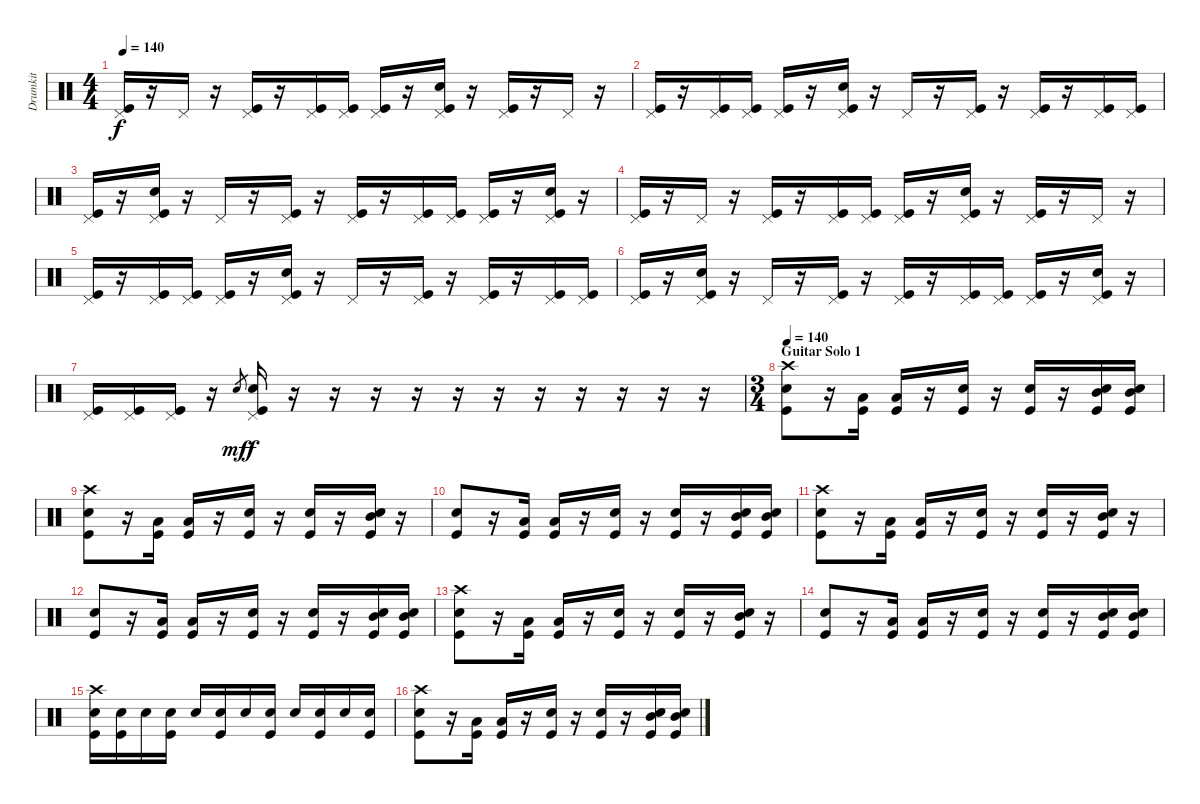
\track ("Drumkit" "Drumkit") {instrument percussion}
\staff {score}
\articulation defaults
\ts (4 4)
\tempo 140
\clef neutral
\ks c
("Pedal Hi-Hat (hit)" "Kick (hit)").16{dy f} r.16 "Pedal Hi-Hat (hit)".16 r.16 ("Pedal Hi-Hat (hit)" "Kick (hit)").16 r.16 ("Pedal Hi-Hat (hit)" "Kick (hit)").16 ("Pedal Hi-Hat (hit)" "Kick (hit)").16 ("Pedal Hi-Hat (hit)" "Kick (hit)").16 r.16 ("Snare (hit) 2" "Pedal Hi-Hat (hit)" "Kick (hit)").16 r.16 ("Pedal Hi-Hat (hit)" "Kick (hit)").16 r.16 "Pedal Hi-Hat (hit)".16 r.16 |
("Pedal Hi-Hat (hit)" "Kick (hit)").16 r.16 ("Pedal Hi-Hat (hit)" "Kick (hit)").16 ("Pedal Hi-Hat (hit)" "Kick (hit)").16 ("Pedal Hi-Hat (hit)" "Kick (hit)").16 r.16 ("Snare (hit) 2" "Pedal Hi-Hat (hit)" "Kick (hit)").16 r.16 "Pedal Hi-Hat (hit)".16 r.16 ("Pedal Hi-Hat (hit)" "Kick (hit)").16 r.16 ("Pedal Hi-Hat (hit)" "Kick (hit)").16 r.16 ("Pedal Hi-Hat (hit)" "Kick (hit)").16 ("Pedal Hi-Hat (hit)" "Kick (hit)").16 |
("Pedal Hi-Hat (hit)" "Kick (hit)").16 r.16 ("Snare (hit) 2" "Pedal Hi-Hat (hit)" "Kick (hit)").16 r.16 "Pedal Hi-Hat (hit)".16 r.16 ("Pedal Hi-Hat (hit)" "Kick (hit)").16 r.16 ("Pedal Hi-Hat (hit)" "Kick (hit)").16 r.16 ("Pedal Hi-Hat (hit)" "Kick (hit)").16 ("Pedal Hi-Hat (hit)" "Kick (hit)").16 ("Pedal Hi-Hat (hit)" "Kick (hit)").16 r.16 ("Snare (hit) 2" "Pedal Hi-Hat (hit)" "Kick (hit)").16 r.16 |
("Pedal Hi-Hat (hit)" "Kick (hit)").16 r.16 "Pedal Hi-Hat (hit)".16 r.16 ("Pedal Hi-Hat (hit)" "Kick (hit)").16 r.16 ("Pedal Hi-Hat (hit)" "Kick (hit)").16 ("Pedal Hi-Hat (hit)" "Kick (hit)").16 ("Pedal Hi-Hat (hit)" "Kick (hit)").16 r.16 ("Snare (hit) 2" "Pedal Hi-Hat (hit)" "Kick (hit)").16 r.16 ("Pedal Hi-Hat (hit)" "Kick (hit)").16 r.16 "Pedal Hi-Hat (hit)".16 r.16 |
("Pedal Hi-Hat (hit)" "Kick (hit)").16 r.16 ("Pedal Hi-Hat (hit)" "Kick (hit)").16 ("Pedal Hi-Hat (hit)" "Kick (hit)").16 ("Pedal Hi-Hat (hit)" "Kick (hit)").16 r.16 ("Snare (hit) 2" "Pedal Hi-Hat (hit)" "Kick (hit)").16 r.16 "Pedal Hi-Hat (hit)".16 r.16 ("Pedal Hi-Hat (hit)" "Kick (hit)").16 r.16 ("Pedal Hi-Hat (hit)" "Kick (hit)").16 r.16 ("Pedal Hi-Hat (hit)" "Kick (hit)").16 ("Pedal Hi-Hat (hit)" "Kick (hit)").16 |
("Pedal Hi-Hat (hit)" "Kick (hit)").16 r.16 ("Snare (hit) 2" "Pedal Hi-Hat (hit)" "Kick (hit)").16 r.16 "Pedal Hi-Hat (hit)".16 r.16 ("Pedal Hi-Hat (hit)" "Kick (hit)").16 r.16 ("Pedal Hi-Hat (hit)" "Kick (hit)").16 r.16 ("Pedal Hi-Hat (hit)" "Kick (hit)").16 ("Pedal Hi-Hat (hit)" "Kick (hit)").16 ("Pedal Hi-Hat (hit)" "Kick (hit)").16 r.16 ("Snare (hit) 2" "Pedal Hi-Hat (hit)" "Kick (hit)").16 r.16 |
("Pedal Hi-Hat (hit)" "Kick (hit)").16 ("Pedal Hi-Hat (hit)" "Kick (hit)").16 ("Pedal Hi-Hat (hit)" "Kick (hit)").16 r.16 "Snare (hit)".8{gr dy mf} ("Snare (hit) 2" "Pedal Hi-Hat (hit)" "Kick (hit)").16{dy f} r.16 r.16 r.16 r.16 r.16 r.16 r.16 r.16 r.16 r.16 r.16 |
\ts (3 4)
\section ("" "Guitar Solo 1")
\tempo 140
("Crash high (hit)" "Snare (hit) 2" "Kick (hit)").8 r.16 ("Low Tom (hit)" "Kick (hit)").16 ("Low Tom (hit)" "Kick (hit)").16 r.16 ("Snare (hit) 2" "Kick (hit)").16 r.16 ("Snare (hit) 2" "Kick (hit)").16 r.16 ("Snare (hit) 2" "Mid Tom (hit)" "Kick (hit)").16 ("Snare (hit) 2" "Mid Tom (hit)" "Kick (hit)").16 |
("Crash high (hit)" "Snare (hit) 2" "Kick (hit)").8 r.16 ("Low Tom (hit)" "Kick (hit)").16 ("Low Tom (hit)" "Kick (hit)").16 r.16 ("Snare (hit) 2" "Kick (hit)").16 r.16 ("Snare (hit) 2" "Kick (hit)").16 r.16 ("Snare (hit) 2" "Mid Tom (hit)" "Kick (hit)").16 r.16 |
("Snare (hit) 2" "Kick (hit)").8 r.16 ("Low Tom (hit)" "Kick (hit)").16 ("Low Tom (hit)" "Kick (hit)").16 r.16 ("Snare (hit) 2" "Kick (hit)").16 r.16 ("Snare (hit) 2" "Kick (hit)").16 r.16 ("Snare (hit) 2" "Mid Tom (hit)" "Kick (hit)").16 ("Snare (hit) 2" "Mid Tom (hit)" "Kick (hit)").16 |
("Crash high (hit)" "Snare (hit) 2" "Kick (hit)").8 r.16 ("Low Tom (hit)" "Kick (hit)").16 ("Low Tom (hit)" "Kick (hit)").16 r.16 ("Snare (hit) 2" "Kick (hit)").16 r.16 ("Snare (hit) 2" "Kick (hit)").16 r.16 ("Snare (hit) 2" "Mid Tom (hit)" "Kick (hit)").16 r.16 |
("Snare (hit) 2" "Kick (hit)").8 r.16 ("Low Tom (hit)" "Kick (hit)").16 ("Low Tom (hit)" "Kick (hit)").16 r.16 ("Snare (hit) 2" "Kick (hit)").16 r.16 ("Snare (hit) 2" "Kick (hit)").16 r.16 ("Snare (hit) 2" "Mid Tom (hit)" "Kick (hit)").16 ("Snare (hit) 2" "Mid Tom (hit)" "Kick (hit)").16 |
("Crash high (hit)" "Snare (hit) 2" "Kick (hit)").8 r.16 ("Low Tom (hit)" "Kick (hit)").16 ("Low Tom (hit)" "Kick (hit)").16 r.16 ("Snare (hit) 2" "Kick (hit)").16 r.16 ("Snare (hit) 2" "Kick (hit)").16 r.16 ("Snare (hit) 2" "Mid Tom (hit)" "Kick (hit)").16 r.16 |
("Snare (hit) 2" "Kick (hit)").8 r.16 ("Low Tom (hit)" "Kick (hit)").16 ("Low Tom (hit)" "Kick (hit)").16 r.16 ("Snare (hit) 2" "Kick (hit)").16 r.16 ("Snare (hit) 2" "Kick (hit)").16 r.16 ("Snare (hit) 2" "Mid Tom (hit)" "Kick (hit)").16 ("Snare (hit) 2" "Mid Tom (hit)" "Kick (hit)").16 |
("Crash high (hit)" "Snare (hit) 2" "Kick (hit)").16 ("Snare (hit) 2" "Kick (hit)").16 "Snare (hit) 2".16 ("Snare (hit) 2" "Kick (hit)").16 "Snare (hit) 2".16 ("Snare (hit) 2" "Kick (hit)").16 "Snare (hit) 2".16 ("Snare (hit) 2" "Kick (hit)").16 "Snare (hit) 2".16 ("Snare (hit) 2" "Kick (hit)").16 "Snare (hit) 2".16 ("Snare (hit) 2" "Kick (hit)").16 |
("Crash high (hit)" "Snare (hit) 2" "Kick (hit)").8 r.16 ("Low Tom (hit)" "Kick (hit)").16 ("Low Tom (hit)" "Kick (hit)").16 r.16 ("Snare (hit) 2" "Kick (hit)").16 r.16 ("Snare (hit) 2" "Kick (hit)").16 r.16 ("Snare (hit) 2" "Mid Tom (hit)" "Kick (hit)").16 ("Snare (hit) 2" "Mid Tom (hit)" "Kick (hit)").16
